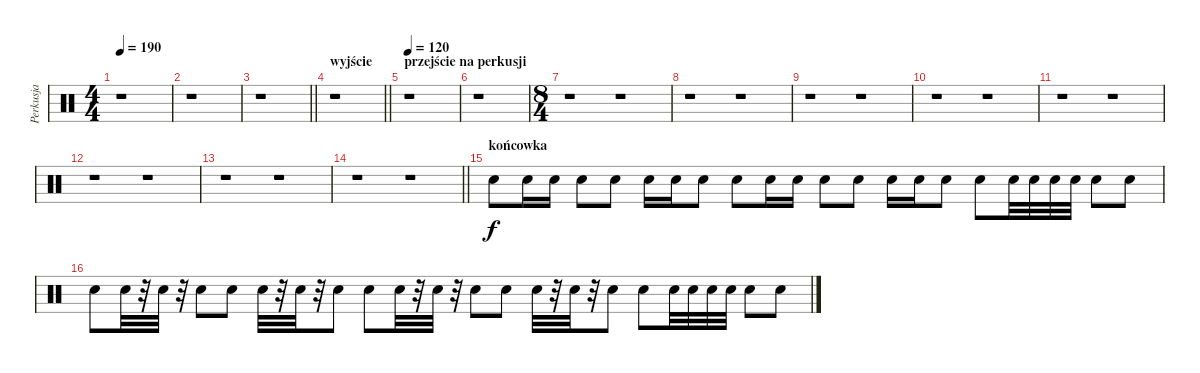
\track ("Perkusja" "Perkusja") {instrument percussion}
\staff {score}
\articulation defaults
\ts (4 4)
\tempo 190
\clef neutral
\ks c
r.1{dy f} |
r.1 |
\barLineRight lightlight
r.1 |
\section ("" "wyjście")
\barLineRight lightlight
r.1 |
\section ("" "przejście na perkusji")
\tempo 120
r.1 |
r.1 |
\ts (8 4)
r.1 r.1 |
r.1 r.1 |
r.1 r.1 |
r.1 r.1 |
r.1 r.1 |
r.1 r.1 |
r.1 r.1 |
\barLineRight lightlight
r.1 r.1 |
\section ("" "końcowka")
"Snare (hit) 2".8 "Snare (hit) 2".16 "Snare (hit) 2".16 "Snare (hit) 2".8 "Snare (hit) 2".8 "Snare (hit) 2".16 "Snare (hit) 2".16 "Snare (hit) 2".8 "Snare (hit) 2".8 "Snare (hit) 2".16 "Snare (hit) 2".16 "Snare (hit) 2".8 "Snare (hit) 2".8 "Snare (hit) 2".16 "Snare (hit) 2".16 "Snare (hit) 2".8 "Snare (hit) 2".8 "Snare (hit) 2".32 "Snare (hit) 2".32 "Snare (hit) 2".32 "Snare (hit) 2".32 "Snare (hit) 2".8 "Snare (hit) 2".8 |
"Snare (hit) 2".8 "Snare (hit) 2".32 r.32 "Snare (hit) 2".32 r.32 "Snare (hit) 2".8 "Snare (hit) 2".8 "Snare (hit) 2".32 r.32 "Snare (hit) 2".32 r.32 "Snare (hit) 2".8 "Snare (hit) 2".8 "Snare (hit) 2".32 r.32 "Snare (hit) 2".32 r.32 "Snare (hit) 2".8 "Snare (hit) 2".8 "Snare (hit) 2".32 r.32 "Snare (hit) 2".32 r.32 "Snare (hit) 2".8 "Snare (hit) 2".8 "Snare (hit) 2".32 "Snare (hit) 2".32 "Snare (hit) 2".32 "Snare (hit) 2".32 "Snare (hit) 2".8 "Snare (hit) 2".8
